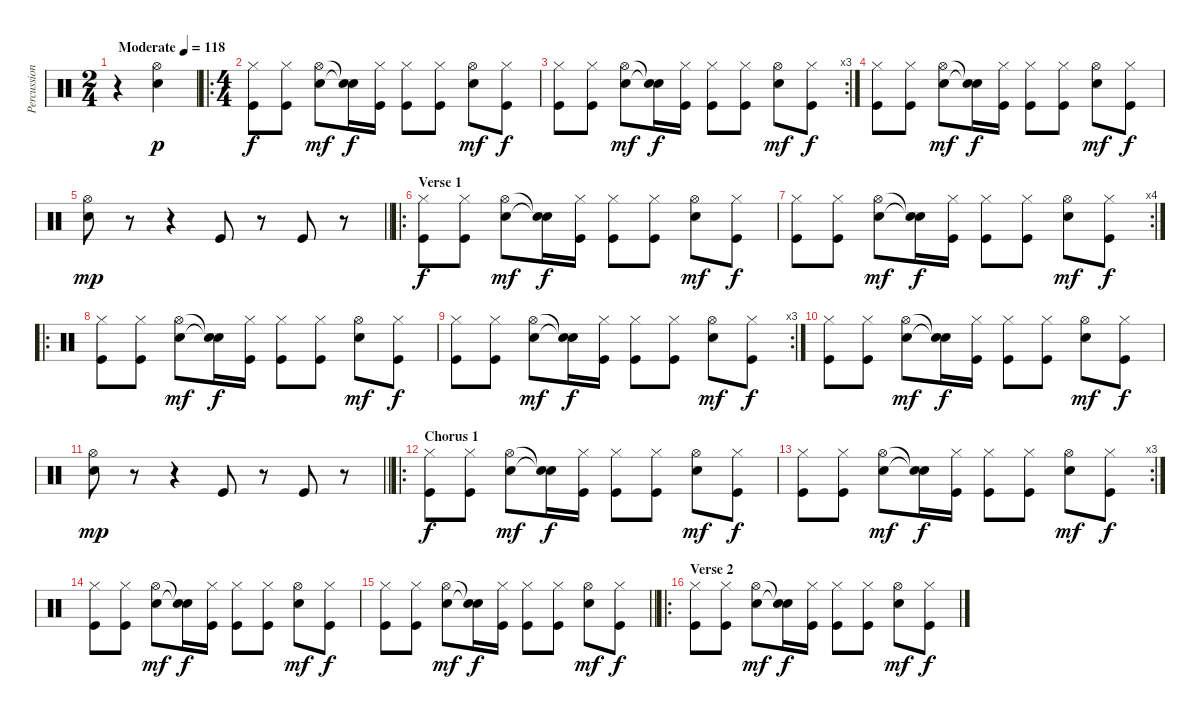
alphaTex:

\track ("Percussion" "Percussion") {instrument percussion}
\staff {score}
\articulation defaults
\ts (2 4)
\tempo (118 "Moderate")
\clef neutral
\ks c
r.4{dy p} ("Hi-Hat (open)" "Electric Snare (hit)").4 |
\ro
\ts (4 4)
("Hi-Hat (closed)" "Kick (hit)").8{dy f} ("Hi-Hat (closed)" "Kick (hit)").8 ("Hi-Hat (open)" "Electric Snare (hit)").8{dy mf} ("Snare (hit)"{t} "Snare (hit)"{t}).16{dy f} ("Hi-Hat (closed)" "Kick (hit)").16 ("Hi-Hat (closed)" "Kick (hit)").8 ("Hi-Hat (closed)" "Kick (hit)").8 ("Hi-Hat (open)" "Electric Snare (hit)").8{dy mf} ("Hi-Hat (closed)" "Kick (hit)").8{dy f} |
\rc 3
("Hi-Hat (closed)" "Kick (hit)").8 ("Hi-Hat (closed)" "Kick (hit)").8 ("Hi-Hat (open)" "Electric Snare (hit)").8{dy mf} ("Snare (hit)"{t} "Snare (hit)"{t}).16{dy f} ("Hi-Hat (closed)" "Kick (hit)").16 ("Hi-Hat (closed)" "Kick (hit)").8 ("Hi-Hat (closed)" "Kick (hit)").8 ("Hi-Hat (open)" "Electric Snare (hit)").8{dy mf} ("Hi-Hat (closed)" "Kick (hit)").8{dy f} |
("Hi-Hat (closed)" "Kick (hit)").8 ("Hi-Hat (closed)" "Kick (hit)").8 ("Hi-Hat (open)" "Electric Snare (hit)").8{dy mf} ("Snare (hit)"{t} "Snare (hit)"{t}).16{dy f} ("Hi-Hat (closed)" "Kick (hit)").16 ("Hi-Hat (closed)" "Kick (hit)").8 ("Hi-Hat (closed)" "Kick (hit)").8 ("Hi-Hat (open)" "Electric Snare (hit)").8{dy mf} ("Hi-Hat (closed)" "Kick (hit)").8{dy f} |
\barLineRight lightlight
("Hi-Hat (open)" "Electric Snare (hit)").8{dy mp} r.8 r.4 "Kick (hit)".8 r.8 "Kick (hit)".8 r.8 |
\ro
\section ("" "Verse 1")
("Hi-Hat (closed)" "Kick (hit)").8{dy f} ("Hi-Hat (closed)" "Kick (hit)").8 ("Hi-Hat (open)" "Electric Snare (hit)").8{dy mf} ("Snare (hit)"{t} "Snare (hit)"{t}).16{dy f} ("Hi-Hat (closed)" "Kick (hit)").16 ("Hi-Hat (closed)" "Kick (hit)").8 ("Hi-Hat (closed)" "Kick (hit)").8 ("Hi-Hat (open)" "Electric Snare (hit)").8{dy mf} ("Hi-Hat (closed)" "Kick (hit)").8{dy f} |
\rc 4
("Hi-Hat (closed)" "Kick (hit)").8 ("Hi-Hat (closed)" "Kick (hit)").8 ("Hi-Hat (open)" "Electric Snare (hit)").8{dy mf} ("Snare (hit)"{t} "Snare (hit)"{t}).16{dy f} ("Hi-Hat (closed)" "Kick (hit)").16 ("Hi-Hat (closed)" "Kick (hit)").8 ("Hi-Hat (closed)" "Kick (hit)").8 ("Hi-Hat (open)" "Electric Snare (hit)").8{dy mf} ("Hi-Hat (closed)" "Kick (hit)").8{dy f} |
\ro
("Hi-Hat (closed)" "Kick (hit)").8 ("Hi-Hat (closed)" "Kick (hit)").8 ("Hi-Hat (open)" "Electric Snare (hit)").8{dy mf} ("Snare (hit)"{t} "Snare (hit)"{t}).16{dy f} ("Hi-Hat (closed)" "Kick (hit)").16 ("Hi-Hat (closed)" "Kick (hit)").8 ("Hi-Hat (closed)" "Kick (hit)").8 ("Hi-Hat (open)" "Electric Snare (hit)").8{dy mf} ("Hi-Hat (closed)" "Kick (hit)").8{dy f} |
\rc 3
("Hi-Hat (closed)" "Kick (hit)").8 ("Hi-Hat (closed)" "Kick (hit)").8 ("Hi-Hat (open)" "Electric Snare (hit)").8{dy mf} ("Snare (hit)"{t} "Snare (hit)"{t}).16{dy f} ("Hi-Hat (closed)" "Kick (hit)").16 ("Hi-Hat (closed)" "Kick (hit)").8 ("Hi-Hat (closed)" "Kick (hit)").8 ("Hi-Hat (open)" "Electric Snare (hit)").8{dy mf} ("Hi-Hat (closed)" "Kick (hit)").8{dy f} |
("Hi-Hat (closed)" "Kick (hit)").8 ("Hi-Hat (closed)" "Kick (hit)").8 ("Hi-Hat (open)" "Electric Snare (hit)").8{dy mf} ("Snare (hit)"{t} "Snare (hit)"{t}).16{dy f} ("Hi-Hat (closed)" "Kick (hit)").16 ("Hi-Hat (closed)" "Kick (hit)").8 ("Hi-Hat (closed)" "Kick (hit)").8 ("Hi-Hat (open)" "Electric Snare (hit)").8{dy mf} ("Hi-Hat (closed)" "Kick (hit)").8{dy f} |
\barLineRight lightlight
("Hi-Hat (open)" "Electric Snare (hit)").8{dy mp} r.8 r.4 "Kick (hit)".8 r.8 "Kick (hit)".8 r.8 |
\ro
\section ("" "Chorus 1")
("Hi-Hat (closed)" "Kick (hit)").8{dy f} ("Hi-Hat (closed)" "Kick (hit)").8 ("Hi-Hat (open)" "Electric Snare (hit)").8{dy mf} ("Snare (hit)"{t} "Snare (hit)"{t}).16{dy f} ("Hi-Hat (closed)" "Kick (hit)").16 ("Hi-Hat (closed)" "Kick (hit)").8 ("Hi-Hat (closed)" "Kick (hit)").8 ("Hi-Hat (open)" "Electric Snare (hit)").8{dy mf} ("Hi-Hat (closed)" "Kick (hit)").8{dy f} |
\rc 3
("Hi-Hat (closed)" "Kick (hit)").8 ("Hi-Hat (closed)" "Kick (hit)").8 ("Hi-Hat (open)" "Electric Snare (hit)").8{dy mf} ("Snare (hit)"{t} "Snare (hit)"{t}).16{dy f} ("Hi-Hat (closed)" "Kick (hit)").16 ("Hi-Hat (closed)" "Kick (hit)").8 ("Hi-Hat (closed)" "Kick (hit)").8 ("Hi-Hat (open)" "Electric Snare (hit)").8{dy mf} ("Hi-Hat (closed)" "Kick (hit)").8{dy f} |
("Hi-Hat (closed)" "Kick (hit)").8 ("Hi-Hat (closed)" "Kick (hit)").8 ("Hi-Hat (open)" "Electric Snare (hit)").8{dy mf} ("Snare (hit)"{t} "Snare (hit)"{t}).16{dy f} ("Hi-Hat (closed)" "Kick (hit)").16 ("Hi-Hat (closed)" "Kick (hit)").8 ("Hi-Hat (closed)" "Kick (hit)").8 ("Hi-Hat (open)" "Electric Snare (hit)").8{dy mf} ("Hi-Hat (closed)" "Kick (hit)").8{dy f} |
\barLineRight lightlight
("Hi-Hat (closed)" "Kick (hit)").8 ("Hi-Hat (closed)" "Kick (hit)").8 ("Hi-Hat (open)" "Electric Snare (hit)").8{dy mf} ("Snare (hit)"{t} "Snare (hit)"{t}).16{dy f} ("Hi-Hat (closed)" "Kick (hit)").16 ("Hi-Hat (closed)" "Kick (hit)").8 ("Hi-Hat (closed)" "Kick (hit)").8 ("Hi-Hat (open)" "Electric Snare (hit)").8{dy mf} ("Hi-Hat (closed)" "Kick (hit)").8{dy f} |
\ro
\section ("" "Verse 2")
("Hi-Hat (closed)" "Kick (hit)").8 ("Hi-Hat (closed)" "Kick (hit)").8 ("Hi-Hat (open)" "Electric Snare (hit)").8{dy mf} ("Snare (hit)"{t} "Snare (hit)"{t}).16{dy f} ("Hi-Hat (closed)" "Kick (hit)").16 ("Hi-Hat (closed)" "Kick (hit)").8 ("Hi-Hat (closed)" "Kick (hit)").8 ("Hi-Hat (open)" "Electric Snare (hit)").8{dy mf} ("Hi-Hat (closed)" "Kick (hit)").8{dy f}
